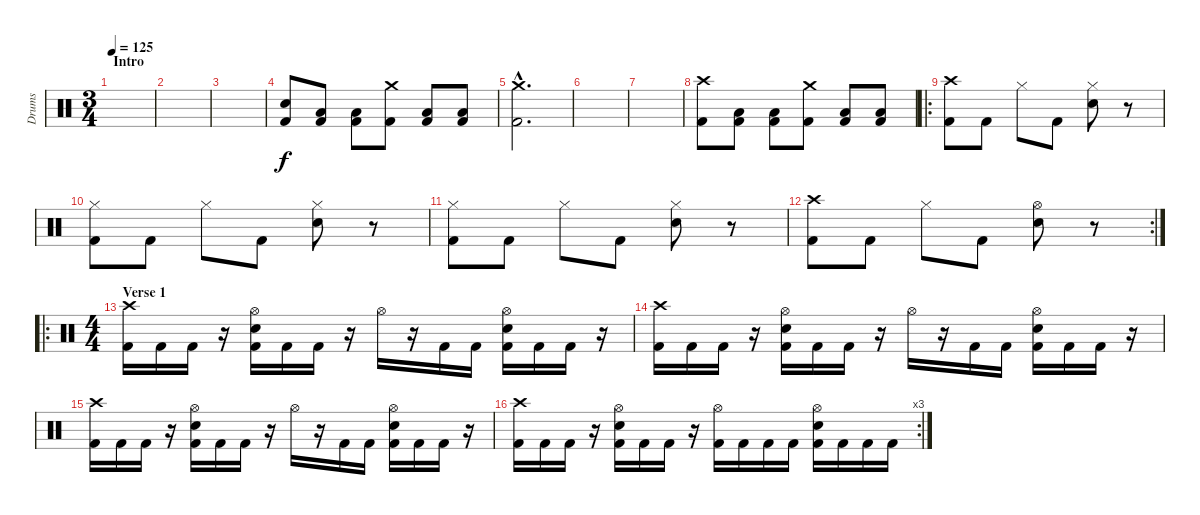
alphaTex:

\track ("Drums" "Drums") {instrument percussion}
\staff {score}
\articulation defaults
\ts (3 4)
\section ("" "Intro")
\tempo 125
\clef neutral
\ks c
|
|
|
("Snare (hit) 2" "Kick (hit) 2").8 ("Low Floor Tom (hit)" "Kick (hit) 2").8 ("Low Floor Tom (hit)" "Kick (hit) 2").8 ("Crash medium (hit)" "Kick (hit) 2").8 ("Low Floor Tom (hit)" "Kick (hit) 2").8 ("Low Floor Tom (hit)" "Kick (hit) 2").8 |
("Crash medium (hit)"{hac} "Kick (hit) 2"{hac}).2{d} |
|
|
("Crash high (hit)" "Kick (hit) 2").8 ("Low Floor Tom (hit)" "Kick (hit) 2").8 ("Low Floor Tom (hit)" "Kick (hit) 2").8 ("Crash medium (hit)" "Kick (hit) 2").8 ("Low Floor Tom (hit)" "Kick (hit) 2").8 ("Low Floor Tom (hit)" "Kick (hit) 2").8 |
\ro
("Crash high (hit)" "Kick (hit) 2").8 "Kick (hit) 2".8 "Hi-Hat (closed)".8 "Kick (hit) 2".8 ("Hi-Hat (closed)" "Snare (hit) 2").8 r.8 |
("Hi-Hat (closed)" "Kick (hit) 2").8 "Kick (hit) 2".8 "Hi-Hat (closed)".8 "Kick (hit) 2".8 ("Hi-Hat (closed)" "Snare (hit) 2").8 r.8 |
("Hi-Hat (closed)" "Kick (hit) 2").8 "Kick (hit) 2".8 "Hi-Hat (closed)".8 "Kick (hit) 2".8 ("Hi-Hat (closed)" "Snare (hit) 2").8 r.8 |
\rc 2
("Crash high (hit)" "Kick (hit) 2").8 "Kick (hit) 2".8 "Hi-Hat (closed)".8 "Kick (hit) 2".8 ("Hi-Hat (open)" "Snare (hit) 2").8 r.8 |
\ro
\ts (4 4)
\section ("" "Verse 1")
("Crash high (hit)" "Kick (hit) 2").16 "Kick (hit) 2".16 "Kick (hit) 2".16 r.16 ("Hi-Hat (open)" "Snare (hit) 2" "Kick (hit) 2").16 "Kick (hit) 2".16 "Kick (hit) 2".16 r.16 "Hi-Hat (open)".16 r.16 "Kick (hit) 2".16 "Kick (hit) 2".16 ("Hi-Hat (open)" "Snare (hit) 2" "Kick (hit) 2").16 "Kick (hit) 2".16 "Kick (hit) 2".16 r.16 |
("Crash high (hit)" "Kick (hit) 2").16 "Kick (hit) 2".16 "Kick (hit) 2".16 r.16 ("Hi-Hat (open)" "Snare (hit) 2" "Kick (hit) 2").16 "Kick (hit) 2".16 "Kick (hit) 2".16 r.16 "Hi-Hat (open)".16 r.16 "Kick (hit) 2".16 "Kick (hit) 2".16 ("Hi-Hat (open)" "Snare (hit) 2" "Kick (hit) 2").16 "Kick (hit) 2".16 "Kick (hit) 2".16 r.16 |
("Crash high (hit)" "Kick (hit) 2").16 "Kick (hit) 2".16 "Kick (hit) 2".16 r.16 ("Hi-Hat (open)" "Snare (hit) 2" "Kick (hit) 2").16 "Kick (hit) 2".16 "Kick (hit) 2".16 r.16 "Hi-Hat (open)".16 r.16 "Kick (hit) 2".16 "Kick (hit) 2".16 ("Hi-Hat (open)" "Snare (hit) 2" "Kick (hit) 2").16 "Kick (hit) 2".16 "Kick (hit) 2".16 r.16 |
\rc 3
("Crash high (hit)" "Kick (hit) 2").16 "Kick (hit) 2".16 "Kick (hit) 2".16 r.16 ("Hi-Hat (open)" "Snare (hit) 2" "Kick (hit) 2").16 "Kick (hit) 2".16 "Kick (hit) 2".16 r.16 ("Hi-Hat (open)" "Kick (hit) 2").16 "Kick (hit) 2".16 "Kick (hit) 2".16 "Kick (hit) 2".16 ("Hi-Hat (open)" "Snare (hit) 2" "Kick (hit) 2").16 "Kick (hit) 2".16 "Kick (hit) 2".16 "Kick (hit) 2".16
